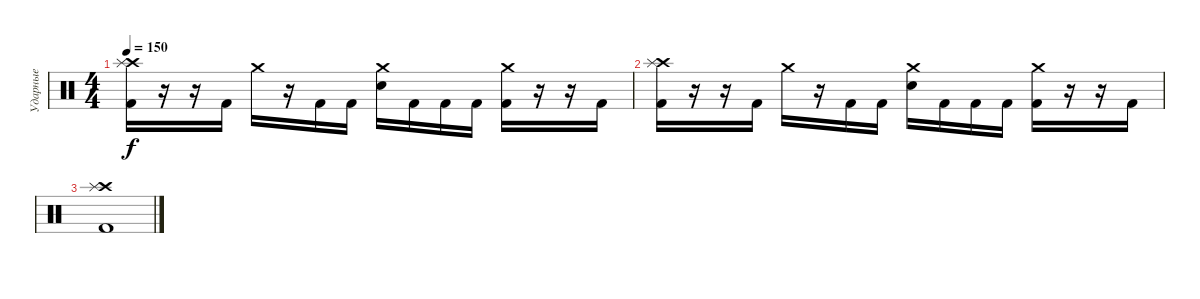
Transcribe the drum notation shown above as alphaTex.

\track ("Ударные" "Ударные") {instrument percussion}
\staff {score}
\articulation defaults
\ts (4 4)
\tempo 150
\clef neutral
\ks c
("Crash high (hit)" "Splash (hit)" "Kick (hit) 2").16{dy f} r.16 r.16 "Kick (hit) 2".16 "Crash medium (hit)".16 r.16 "Kick (hit) 2".16 "Kick (hit) 2".16 ("Crash medium (hit)" "Electric Snare (hit)").16 "Kick (hit) 2".16 "Kick (hit) 2".16 "Kick (hit) 2".16 ("Crash medium (hit)" "Kick (hit) 2").16 r.16 r.16 "Kick (hit) 2".16 |
("Crash high (hit)" "Splash (hit)" "Kick (hit) 2").16 r.16 r.16 "Kick (hit) 2".16 "Crash medium (hit)".16 r.16 "Kick (hit) 2".16 "Kick (hit) 2".16 ("Crash medium (hit)" "Electric Snare (hit)").16 "Kick (hit) 2".16 "Kick (hit) 2".16 "Kick (hit) 2".16 ("Crash medium (hit)" "Kick (hit) 2").16 r.16 r.16 "Kick (hit) 2".16 |
("Crash high (hit)" "Splash (hit)" "Kick (hit) 2").1
